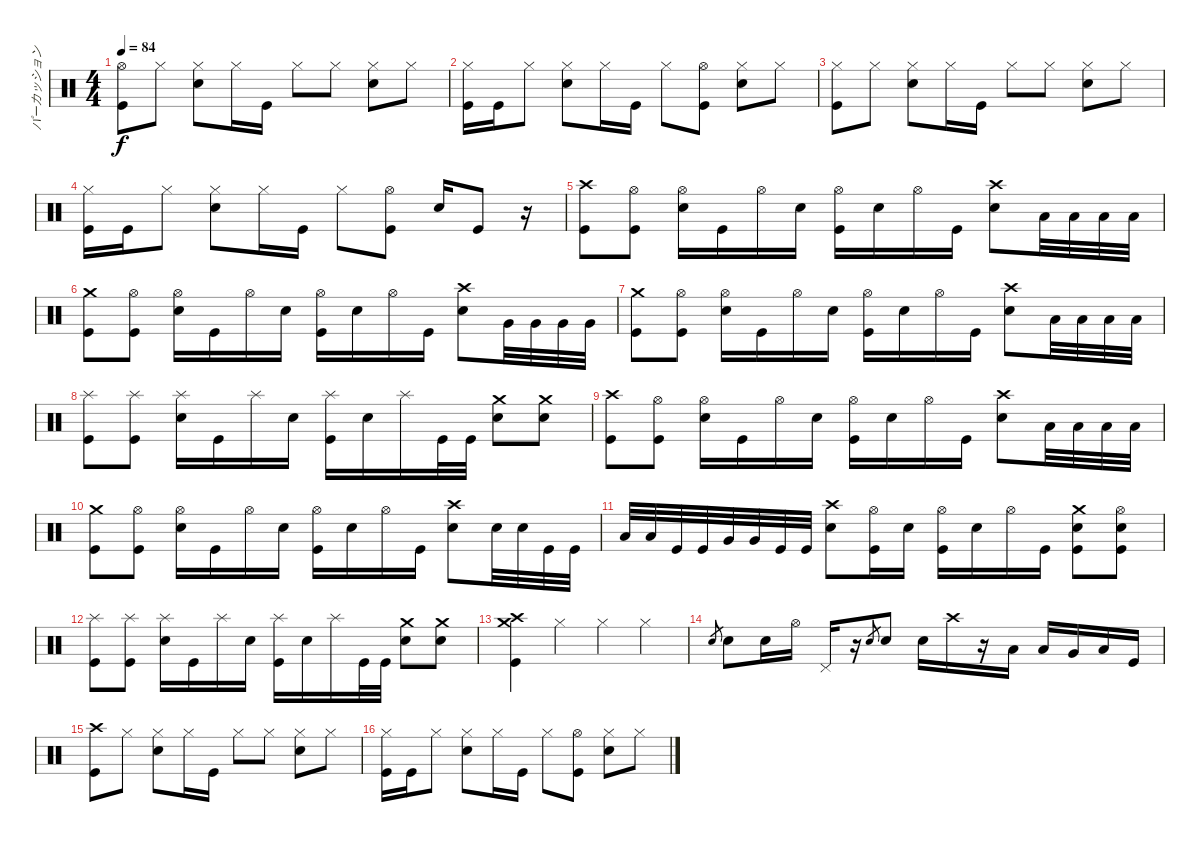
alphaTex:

\track ("パーカッション" "パーカッション") {instrument percussion}
\staff {score}
\articulation defaults
\ts (4 4)
\tempo 84
\clef neutral
\ks c
("Hi-Hat (open)" "Kick (hit)").8{dy f} "Hi-Hat (closed)".8 ("Snare (hit) 2" "Hi-Hat (closed)").8 "Hi-Hat (closed)".16 "Kick (hit)".16 "Hi-Hat (closed)".8 "Hi-Hat (closed)".8 ("Hi-Hat (closed)" "Snare (hit) 2").8 "Hi-Hat (closed)".8 |
("Hi-Hat (closed)" "Kick (hit)").16 "Kick (hit)".16 "Hi-Hat (closed)".8 ("Hi-Hat (closed)" "Snare (hit) 2").8 "Hi-Hat (closed)".16 "Kick (hit)".16 "Hi-Hat (closed)".8 ("Kick (hit)" "Hi-Hat (open)").8 ("Snare (hit) 2" "Hi-Hat (closed)").8 "Hi-Hat (closed)".8 |
("Hi-Hat (closed)" "Kick (hit)").8 "Hi-Hat (closed)".8 ("Snare (hit) 2" "Hi-Hat (closed)").8 "Hi-Hat (closed)".16 "Kick (hit)".16 "Hi-Hat (closed)".8 "Hi-Hat (closed)".8 ("Hi-Hat (closed)" "Snare (hit) 2").8 "Hi-Hat (closed)".8 |
("Hi-Hat (closed)" "Kick (hit)").16 "Kick (hit)".16 "Hi-Hat (closed)".8 ("Hi-Hat (closed)" "Snare (hit) 2").8 "Hi-Hat (closed)".16 "Kick (hit)".16 "Hi-Hat (closed)".8 ("Kick (hit)" "Hi-Hat (open)").8 "Snare (hit) 2".16 "Kick (hit)".8 r.16 |
("Crash high (hit)" "Kick (hit)").8 ("Hi-Hat (open)" "Kick (hit)").8 ("Hi-Hat (open)" "Snare (hit) 2").16 "Kick (hit)".16 "Hi-Hat (open)".16 "Snare (hit) 2".16 ("Hi-Hat (open)" "Kick (hit)").16 "Snare (hit) 2".16 "Hi-Hat (open)".16 "Kick (hit)".16 ("Crash high (hit)" "Snare (hit) 2").8 "Low Tom (hit)".32 "Low Tom (hit)".32 "Low Tom (hit)".32 "Low Tom (hit)".32 |
("Crash medium (hit)" "Kick (hit)").8 ("Kick (hit)" "Hi-Hat (open)").8 ("Hi-Hat (open)" "Snare (hit) 2").16 "Kick (hit)".16 "Hi-Hat (open)".16 "Snare (hit) 2".16 ("Kick (hit)" "Hi-Hat (open)").16 "Snare (hit) 2".16 "Hi-Hat (open)".16 "Kick (hit)".16 ("Crash high (hit)" "Snare (hit) 2").8 "Very Low Tom (hit)".32 "Very Low Tom (hit)".32 "Very Low Tom (hit)".32 "Very Low Tom (hit)".32 |
("Crash medium (hit)" "Kick (hit)").8 ("Kick (hit)" "Hi-Hat (open)").8 ("Hi-Hat (open)" "Snare (hit) 2").16 "Kick (hit)".16 "Hi-Hat (open)".16 "Snare (hit) 2".16 ("Kick (hit)" "Hi-Hat (open)").16 "Snare (hit) 2".16 "Hi-Hat (open)".16 "Kick (hit)".16 ("Crash high (hit)" "Snare (hit) 2").8 "Low Floor Tom (hit)".32 "Low Floor Tom (hit)".32 "Low Floor Tom (hit)".32 "Low Floor Tom (hit)".32 |
("Splash (hit)" "Kick (hit)").8 ("Splash (hit)" "Kick (hit)").8 ("Splash (hit)" "Snare (hit) 2").16 "Kick (hit)".16 "Splash (hit)".16 "Snare (hit) 2".16 ("Splash (hit)" "Kick (hit)").16 "Snare (hit) 2".16 "Splash (hit)".16 "Kick (hit)".32 "Kick (hit)".32 ("Snare (hit) 2" "Crash medium (hit)").8 ("Snare (hit) 2" "Crash medium (hit)").8 |
("Crash high (hit)" "Kick (hit)").8 ("Hi-Hat (open)" "Kick (hit)").8 ("Hi-Hat (open)" "Snare (hit) 2").16 "Kick (hit)".16 "Hi-Hat (open)".16 "Snare (hit) 2".16 ("Hi-Hat (open)" "Kick (hit)").16 "Snare (hit) 2".16 "Hi-Hat (open)".16 "Kick (hit)".16 ("Crash high (hit)" "Snare (hit) 2").8 "Low Tom (hit)".32 "Low Tom (hit)".32 "Low Tom (hit)".32 "Low Tom (hit)".32 |
("Crash medium (hit)" "Kick (hit)").8 ("Kick (hit)" "Hi-Hat (open)").8 ("Hi-Hat (open)" "Snare (hit) 2").16 "Kick (hit)".16 "Hi-Hat (open)".16 "Snare (hit) 2".16 ("Kick (hit)" "Hi-Hat (open)").16 "Snare (hit) 2".16 "Hi-Hat (open)".16 "Kick (hit)".16 ("Crash high (hit)" "Snare (hit) 2").8 "Snare (hit) 2".32 "Snare (hit) 2".32 "Kick (hit)".32 "Kick (hit)".32 |
"Low Tom (hit)".32 "Low Tom (hit)".32 "Kick (hit)".32 "Kick (hit)".32 "Very Low Tom (hit)".32 "Very Low Tom (hit)".32 "Kick (hit)".32 "Kick (hit)".32 ("Snare (hit) 2" "Crash high (hit)").8 ("Hi-Hat (open)" "Kick (hit)").16 "Snare (hit) 2".16 ("Kick (hit)" "Hi-Hat (open)").16 "Snare (hit) 2".16 "Hi-Hat (open)".16 "Kick (hit)".16 ("Snare (hit) 2" "Crash medium (hit)" "Kick (hit)").8 ("Hi-Hat (open)" "Snare (hit) 2" "Kick (hit)").8 |
("Splash (hit)" "Kick (hit)").8 ("Splash (hit)" "Kick (hit)").8 ("Splash (hit)" "Snare (hit) 2").16 "Kick (hit)".16 "Splash (hit)".16 "Snare (hit) 2".16 ("Splash (hit)" "Kick (hit)").16 "Snare (hit) 2".16 "Splash (hit)".16 "Kick (hit)".32 "Kick (hit)".32 ("Snare (hit) 2" "Crash medium (hit)").8 ("Snare (hit) 2" "Crash medium (hit)").8 |
("Kick (hit)" "Crash high (hit)" "Crash medium (hit)").4 "Hi-Hat (closed)".4 "Hi-Hat (closed)".4 "Hi-Hat (closed)".4 |
"Snare (hit) 2".8{gr} "Snare (hit) 2".8 "Snare (hit) 2".16 "Hi-Hat (open)".16 "Pedal Hi-Hat (hit)".16 r.16 "Snare (hit) 2".8{gr} "Snare (hit) 2".8 "Snare (hit) 2".16 "Crash high (hit)".16 r.16 "Low Tom (hit)".16 "Low Tom (hit)".16 "Very Low Tom (hit)".16 "Low Floor Tom (hit)".16 "Kick (hit)".16 |
("Crash high (hit)" "Kick (hit)").8 "Hi-Hat (closed)".8 ("Snare (hit) 2" "Hi-Hat (closed)").8 "Hi-Hat (closed)".16 "Kick (hit)".16 "Hi-Hat (closed)".8 "Hi-Hat (closed)".8 ("Hi-Hat (closed)" "Snare (hit) 2").8 "Hi-Hat (closed)".8 |
("Hi-Hat (closed)" "Kick (hit)").16 "Kick (hit)".16 "Hi-Hat (closed)".8 ("Hi-Hat (closed)" "Snare (hit) 2").8 "Hi-Hat (closed)".16 "Kick (hit)".16 "Hi-Hat (closed)".8 ("Hi-Hat (open)" "Kick (hit)").8 ("Snare (hit) 2" "Hi-Hat (closed)").8 "Hi-Hat (closed)".8
